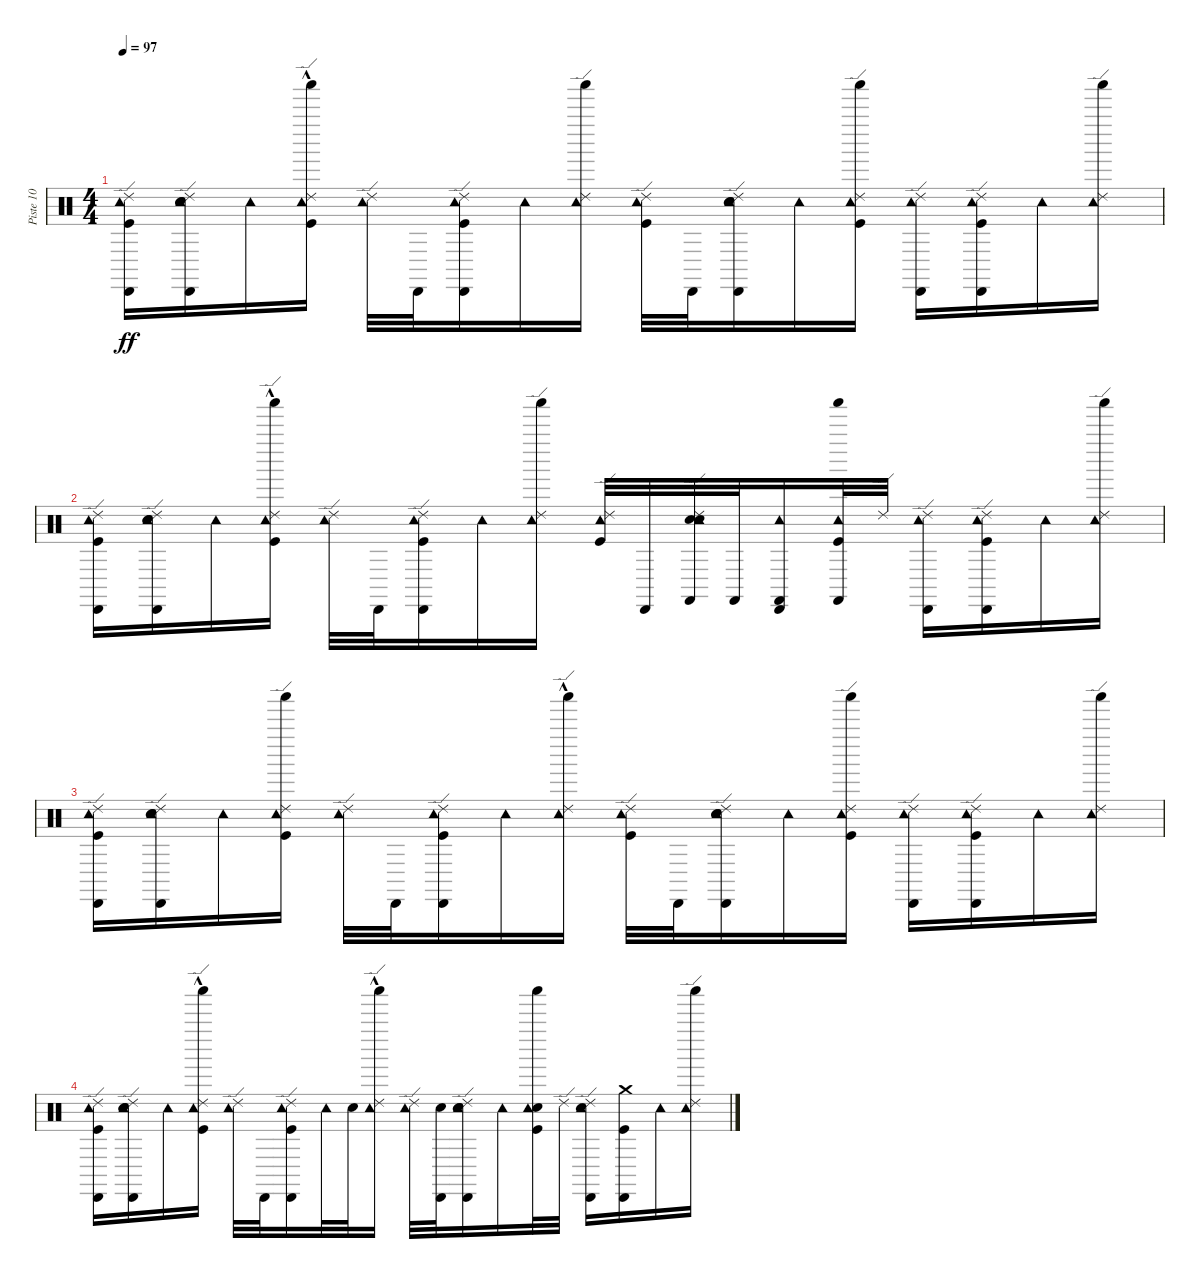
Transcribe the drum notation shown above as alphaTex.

\track ("Piste 10" "Piste 10") {instrument percussion}
\staff {score}
\articulation defaults
\ts (4 4)
\tempo 97
\clef neutral
\ks c
("Cabasa (hit)" "Kick (hit)" "Tambourine (hit)" "Ride (edge) 2").16{dy ff} ("Cabasa (hit)" "Hand Clap (hit)" "Electric Snare (hit)" "Tambourine (hit)" "Ride (edge) 2").16 "Tambourine (hit)".16 ("Shaker (hit)"{hac} "Kick (hit)" "Tambourine (hit)" "Ride (edge) 2").16 ("Tambourine (hit)" "Ride (edge) 2").32 "Cabasa (hit)".32 ("Cabasa (hit)" "Kick (hit)" "Tambourine (hit)" "Ride (edge) 2").16 "Tambourine (hit)".16 ("Shaker (hit)" "Tambourine (hit)" "Ride (edge) 2").16 ("Kick (hit)" "Tambourine (hit)" "Ride (edge) 2").32 "Cabasa (hit)".32 ("Cabasa (hit)" "Hand Clap (hit)" "Electric Snare (hit)" "Tambourine (hit)" "Ride (edge) 2").16 "Tambourine (hit)".16 ("Shaker (hit)" "Kick (hit)" "Tambourine (hit)" "Ride (edge) 2").16 ("Cabasa (hit)" "Tambourine (hit)" "Ride (edge) 2").16 ("Cabasa (hit)" "Kick (hit)" "Tambourine (hit)" "Ride (edge) 2").16 "Tambourine (hit)".16 ("Shaker (hit)" "Tambourine (hit)" "Ride (edge) 2").16 |
("Cabasa (hit)" "Kick (hit)" "Tambourine (hit)" "Ride (edge) 2").16 ("Cabasa (hit)" "Hand Clap (hit)" "Electric Snare (hit)" "Tambourine (hit)" "Ride (edge) 2").16 "Tambourine (hit)".16 ("Shaker (hit)"{hac} "Kick (hit)" "Tambourine (hit)" "Ride (edge) 2").16 ("Tambourine (hit)" "Ride (edge) 2").32 "Cabasa (hit)".32 ("Cabasa (hit)" "Kick (hit)" "Tambourine (hit)" "Ride (edge) 2").16 "Tambourine (hit)".16 ("Shaker (hit)" "Tambourine (hit)" "Ride (edge) 2").16 ("Kick (hit)" "Tambourine (hit)" "Ride (edge) 2").32 "Cabasa (hit)".32 ("Castanets (hit)" "Hand Clap (hit)" "Electric Snare (hit)" "Tambourine (hit)" "Ride (edge) 2").32 "Castanets (hit)".32 ("Cabasa (hit)" "Castanets (hit)" "Tambourine (hit)").16 ("Shaker (hit)" "Castanets (hit)" "Kick (hit)" "Tambourine (hit)").32 "Ride (edge) 2".32 ("Cabasa (hit)" "Tambourine (hit)" "Ride (edge) 2").16 ("Cabasa (hit)" "Kick (hit)" "Tambourine (hit)" "Ride (edge) 2").16 "Tambourine (hit)".16 ("Shaker (hit)" "Tambourine (hit)" "Ride (edge) 2").16 |
("Cabasa (hit)" "Kick (hit)" "Tambourine (hit)" "Ride (edge) 2").16 ("Cabasa (hit)" "Hand Clap (hit)" "Electric Snare (hit)" "Tambourine (hit)" "Ride (edge) 2").16 "Tambourine (hit)".16 ("Shaker (hit)" "Kick (hit)" "Tambourine (hit)" "Ride (edge) 2").16 ("Tambourine (hit)" "Ride (edge) 2").32 "Cabasa (hit)".32 ("Cabasa (hit)" "Kick (hit)" "Tambourine (hit)" "Ride (edge) 2").16 "Tambourine (hit)".16 ("Shaker (hit)"{hac} "Tambourine (hit)" "Ride (edge) 2").16 ("Kick (hit)" "Tambourine (hit)" "Ride (edge) 2").32 "Cabasa (hit)".32 ("Cabasa (hit)" "Hand Clap (hit)" "Electric Snare (hit)" "Tambourine (hit)" "Ride (edge) 2").16 "Tambourine (hit)".16 ("Shaker (hit)" "Kick (hit)" "Tambourine (hit)" "Ride (edge) 2").16 ("Cabasa (hit)" "Tambourine (hit)" "Ride (edge) 2").16 ("Cabasa (hit)" "Kick (hit)" "Tambourine (hit)" "Ride (edge) 2").16 "Tambourine (hit)".16 ("Shaker (hit)" "Tambourine (hit)" "Ride (edge) 2").16 |
("Cabasa (hit)" "Kick (hit)" "Tambourine (hit)" "Ride (edge) 2").16 ("Cabasa (hit)" "Hand Clap (hit)" "Electric Snare (hit)" "Tambourine (hit)" "Ride (edge) 2").16 "Tambourine (hit)".16 ("Shaker (hit)"{hac} "Kick (hit)" "Tambourine (hit)" "Ride (edge) 2").16 ("Tambourine (hit)" "Ride (edge) 2").32 "Cabasa (hit)".32 ("Cabasa (hit)" "Kick (hit)" "Tambourine (hit)" "Ride (edge) 2").16 "Tambourine (hit)".32 "Electric Snare (hit)".32 ("Shaker (hit)"{hac} "Tambourine (hit)" "Ride (edge) 2").16 ("Tambourine (hit)" "Ride (edge) 2").32 ("Cabasa (hit)" "Electric Snare (hit)").32 ("Cabasa (hit)" "Hand Clap (hit)" "Electric Snare (hit)" "Tambourine (hit)" "Ride (edge) 2").16 "Tambourine (hit)".16 ("Shaker (hit)" "Kick (hit)" "Electric Snare (hit)" "Tambourine (hit)").32 "Ride (edge) 2".32 ("Cabasa (hit)" "Electric Snare (hit)" "Tambourine (hit)" "Ride (edge) 2").16 ("Cabasa (hit)" "Kick (hit)" "Crash medium (hit)").16 "Tambourine (hit)".16 ("Shaker (hit)" "Tambourine (hit)" "Ride (edge) 2").16
